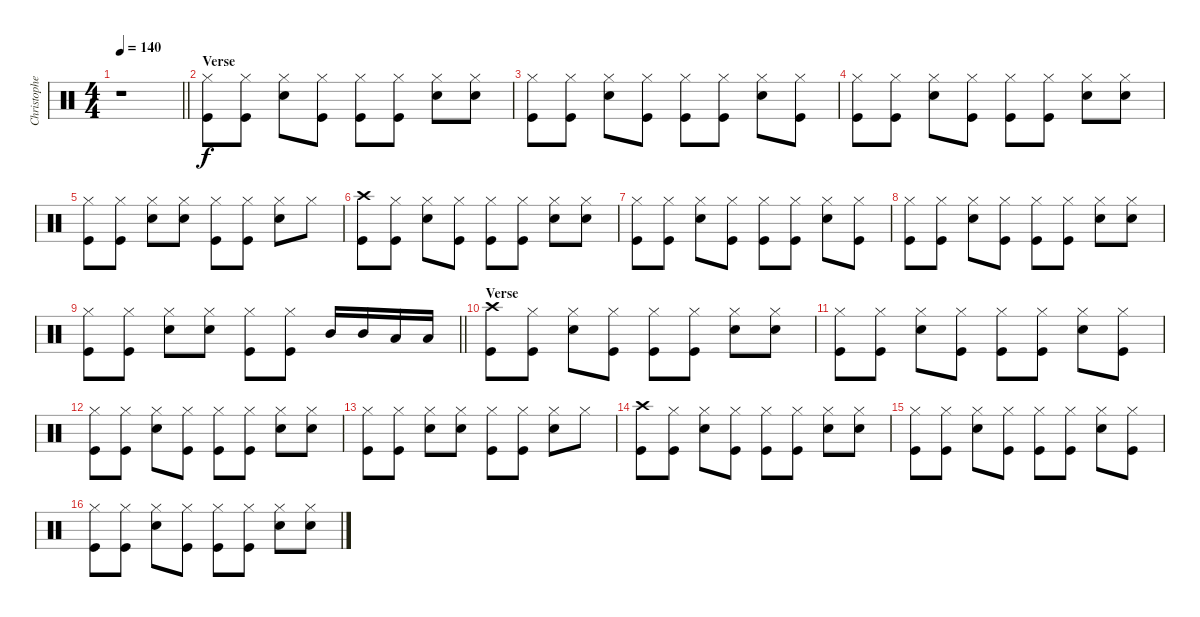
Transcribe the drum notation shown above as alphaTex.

\track ("Christopher - Drums" "Christophe") {instrument percussion}
\staff {score}
\articulation defaults
\ts (4 4)
\tempo 140
\clef neutral
\barLineRight lightlight
\ks c
r.1{dy f} |
\section ("" "Verse")
("Hi-Hat (closed)" "Kick (hit)").8 ("Hi-Hat (closed)" "Kick (hit)").8 ("Hi-Hat (closed)" "Snare (hit) 2").8 ("Hi-Hat (closed)" "Kick (hit)").8 ("Hi-Hat (closed)" "Kick (hit)").8 ("Hi-Hat (closed)" "Kick (hit)").8 ("Hi-Hat (closed)" "Snare (hit) 2").8 ("Hi-Hat (closed)" "Snare (hit) 2").8 |
("Hi-Hat (closed)" "Kick (hit)").8 ("Hi-Hat (closed)" "Kick (hit)").8 ("Hi-Hat (closed)" "Snare (hit) 2").8 ("Hi-Hat (closed)" "Kick (hit)").8 ("Hi-Hat (closed)" "Kick (hit)").8 ("Hi-Hat (closed)" "Kick (hit)").8 ("Hi-Hat (closed)" "Snare (hit) 2").8 ("Hi-Hat (closed)" "Kick (hit)").8 |
("Hi-Hat (closed)" "Kick (hit)").8 ("Hi-Hat (closed)" "Kick (hit)").8 ("Hi-Hat (closed)" "Snare (hit) 2").8 ("Hi-Hat (closed)" "Kick (hit)").8 ("Hi-Hat (closed)" "Kick (hit)").8 ("Hi-Hat (closed)" "Kick (hit)").8 ("Hi-Hat (closed)" "Snare (hit) 2").8 ("Hi-Hat (closed)" "Snare (hit) 2").8 |
("Hi-Hat (closed)" "Kick (hit)").8 ("Hi-Hat (closed)" "Kick (hit)").8 ("Hi-Hat (closed)" "Snare (hit) 2").8 ("Hi-Hat (closed)" "Snare (hit) 2").8 ("Hi-Hat (closed)" "Kick (hit)").8 ("Hi-Hat (closed)" "Kick (hit)").8 ("Hi-Hat (closed)" "Snare (hit) 2").8 "Hi-Hat (closed)".8 |
("Crash high (hit)" "Kick (hit)").8 ("Hi-Hat (closed)" "Kick (hit)").8 ("Hi-Hat (closed)" "Snare (hit) 2").8 ("Hi-Hat (closed)" "Kick (hit)").8 ("Hi-Hat (closed)" "Kick (hit)").8 ("Hi-Hat (closed)" "Kick (hit)").8 ("Hi-Hat (closed)" "Snare (hit) 2").8 ("Hi-Hat (closed)" "Snare (hit) 2").8 |
("Hi-Hat (closed)" "Kick (hit)").8 ("Hi-Hat (closed)" "Kick (hit)").8 ("Hi-Hat (closed)" "Snare (hit) 2").8 ("Hi-Hat (closed)" "Kick (hit)").8 ("Hi-Hat (closed)" "Kick (hit)").8 ("Hi-Hat (closed)" "Kick (hit)").8 ("Hi-Hat (closed)" "Snare (hit) 2").8 ("Hi-Hat (closed)" "Kick (hit)").8 |
("Hi-Hat (closed)" "Kick (hit)").8 ("Hi-Hat (closed)" "Kick (hit)").8 ("Hi-Hat (closed)" "Snare (hit) 2").8 ("Hi-Hat (closed)" "Kick (hit)").8 ("Hi-Hat (closed)" "Kick (hit)").8 ("Hi-Hat (closed)" "Kick (hit)").8 ("Hi-Hat (closed)" "Snare (hit) 2").8 ("Hi-Hat (closed)" "Snare (hit) 2").8 |
\barLineRight lightlight
("Hi-Hat (closed)" "Kick (hit)").8 ("Hi-Hat (closed)" "Kick (hit)").8 ("Hi-Hat (closed)" "Snare (hit) 2").8 ("Hi-Hat (closed)" "Snare (hit) 2").8 ("Hi-Hat (closed)" "Kick (hit)").8 ("Hi-Hat (closed)" "Kick (hit)").8 "Mid Tom (hit)".16 "Mid Tom (hit)".16 "Low Tom (hit)".16 "Low Tom (hit)".16 |
\section ("" "Verse")
("Crash high (hit)" "Kick (hit)").8 ("Hi-Hat (closed)" "Kick (hit)").8 ("Hi-Hat (closed)" "Snare (hit) 2").8 ("Hi-Hat (closed)" "Kick (hit)").8 ("Hi-Hat (closed)" "Kick (hit)").8 ("Hi-Hat (closed)" "Kick (hit)").8 ("Hi-Hat (closed)" "Snare (hit) 2").8 ("Hi-Hat (closed)" "Snare (hit) 2").8 |
("Hi-Hat (closed)" "Kick (hit)").8 ("Hi-Hat (closed)" "Kick (hit)").8 ("Hi-Hat (closed)" "Snare (hit) 2").8 ("Hi-Hat (closed)" "Kick (hit)").8 ("Hi-Hat (closed)" "Kick (hit)").8 ("Hi-Hat (closed)" "Kick (hit)").8 ("Hi-Hat (closed)" "Snare (hit) 2").8 ("Hi-Hat (closed)" "Kick (hit)").8 |
("Hi-Hat (closed)" "Kick (hit)").8 ("Hi-Hat (closed)" "Kick (hit)").8 ("Hi-Hat (closed)" "Snare (hit) 2").8 ("Hi-Hat (closed)" "Kick (hit)").8 ("Hi-Hat (closed)" "Kick (hit)").8 ("Hi-Hat (closed)" "Kick (hit)").8 ("Hi-Hat (closed)" "Snare (hit) 2").8 ("Hi-Hat (closed)" "Snare (hit) 2").8 |
("Hi-Hat (closed)" "Kick (hit)").8 ("Hi-Hat (closed)" "Kick (hit)").8 ("Hi-Hat (closed)" "Snare (hit) 2").8 ("Hi-Hat (closed)" "Snare (hit) 2").8 ("Hi-Hat (closed)" "Kick (hit)").8 ("Hi-Hat (closed)" "Kick (hit)").8 ("Hi-Hat (closed)" "Snare (hit) 2").8 "Hi-Hat (closed)".8 |
("Crash high (hit)" "Kick (hit)").8 ("Hi-Hat (closed)" "Kick (hit)").8 ("Hi-Hat (closed)" "Snare (hit) 2").8 ("Hi-Hat (closed)" "Kick (hit)").8 ("Hi-Hat (closed)" "Kick (hit)").8 ("Hi-Hat (closed)" "Kick (hit)").8 ("Hi-Hat (closed)" "Snare (hit) 2").8 ("Hi-Hat (closed)" "Snare (hit) 2").8 |
("Hi-Hat (closed)" "Kick (hit)").8 ("Hi-Hat (closed)" "Kick (hit)").8 ("Hi-Hat (closed)" "Snare (hit) 2").8 ("Hi-Hat (closed)" "Kick (hit)").8 ("Hi-Hat (closed)" "Kick (hit)").8 ("Hi-Hat (closed)" "Kick (hit)").8 ("Hi-Hat (closed)" "Snare (hit) 2").8 ("Hi-Hat (closed)" "Kick (hit)").8 |
("Hi-Hat (closed)" "Kick (hit)").8 ("Hi-Hat (closed)" "Kick (hit)").8 ("Hi-Hat (closed)" "Snare (hit) 2").8 ("Hi-Hat (closed)" "Kick (hit)").8 ("Hi-Hat (closed)" "Kick (hit)").8 ("Hi-Hat (closed)" "Kick (hit)").8 ("Hi-Hat (closed)" "Snare (hit) 2").8 ("Hi-Hat (closed)" "Snare (hit) 2").8
